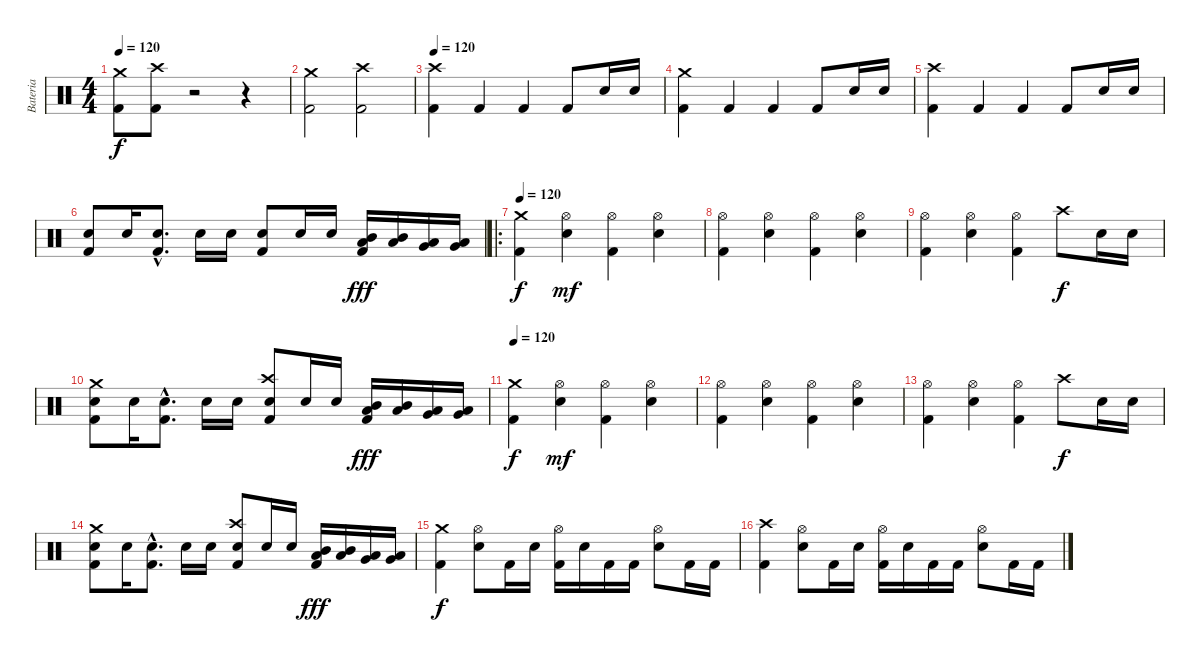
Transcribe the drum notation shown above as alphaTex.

\track ("Bateria" "Bateria") {instrument percussion}
\staff {score}
\articulation defaults
\ts (4 4)
\tempo 120
\clef neutral
\ks c
("Crash medium (hit)" "Kick (hit) 2").8{dy f} ("Crash high (hit)" "Kick (hit) 2").8 r.2 r.4 |
("Crash medium (hit)" "Kick (hit) 2").2 ("Crash high (hit)" "Kick (hit) 2").2 |
\tempo 120
("Crash high (hit)" "Kick (hit) 2").4 "Kick (hit) 2".4 "Kick (hit) 2".4 "Kick (hit) 2".8 "Snare (hit) 2".16 "Snare (hit) 2".16 |
("Crash medium (hit)" "Kick (hit) 2").4 "Kick (hit) 2".4 "Kick (hit) 2".4 "Kick (hit) 2".8 "Snare (hit) 2".16 "Snare (hit) 2".16 |
("Crash high (hit)" "Kick (hit) 2").4 "Kick (hit) 2".4 "Kick (hit) 2".4 "Kick (hit) 2".8 "Snare (hit) 2".16 "Snare (hit) 2".16 |
("Snare (hit) 2" "Kick (hit) 2").8 "Snare (hit) 2".16 ("Snare (hit) 2"{hac} "Kick (hit) 2"{hac}).8{d} "Snare (hit) 2".16 "Snare (hit) 2".16 ("Snare (hit) 2" "Kick (hit) 2").8 "Snare (hit) 2".16 "Snare (hit) 2".16 ("Low Tom (hit)" "Mid Tom (hit)" "Kick (hit) 2").16{dy fff} ("Low Tom (hit)" "Mid Tom (hit)").16 ("Very Low Tom (hit)" "Low Tom (hit)").16 ("Very Low Tom (hit)" "Low Tom (hit)").16 |
\ro
\tempo 120
("Crash medium (hit)" "Kick (hit) 2").4{dy f} ("Hi-Hat (open)" "Snare (hit) 2").4{dy mf} ("Hi-Hat (open)" "Kick (hit) 2").4 ("Hi-Hat (open)" "Snare (hit) 2").4 |
("Hi-Hat (open)" "Kick (hit) 2").4 ("Hi-Hat (open)" "Snare (hit) 2").4 ("Hi-Hat (open)" "Kick (hit) 2").4 ("Hi-Hat (open)" "Snare (hit) 2").4 |
("Hi-Hat (open)" "Kick (hit) 2").4 ("Hi-Hat (open)" "Snare (hit) 2").4 ("Hi-Hat (open)" "Kick (hit) 2").4 "Crash high (hit)".8{dy f} "Snare (hit) 2".16 "Snare (hit) 2".16 |
("Crash medium (hit)" "Snare (hit) 2" "Kick (hit) 2").8 "Snare (hit) 2".16 ("Snare (hit) 2"{hac} "Kick (hit) 2"{hac}).8{d} "Snare (hit) 2".16 "Snare (hit) 2".16 ("Crash high (hit)" "Snare (hit) 2" "Kick (hit) 2").8 "Snare (hit) 2".16 "Snare (hit) 2".16 ("Mid Tom (hit)" "Low Tom (hit)" "Kick (hit) 2").16{dy fff} ("Mid Tom (hit)" "Low Tom (hit)").16 ("Low Tom (hit)" "Very Low Tom (hit)").16 ("Low Tom (hit)" "Very Low Tom (hit)").16 |
\tempo 120
("Crash medium (hit)" "Kick (hit) 2").4{dy f} ("Hi-Hat (open)" "Snare (hit) 2").4{dy mf} ("Hi-Hat (open)" "Kick (hit) 2").4 ("Hi-Hat (open)" "Snare (hit) 2").4 |
("Hi-Hat (open)" "Kick (hit) 2").4 ("Hi-Hat (open)" "Snare (hit) 2").4 ("Hi-Hat (open)" "Kick (hit) 2").4 ("Hi-Hat (open)" "Snare (hit) 2").4 |
("Hi-Hat (open)" "Kick (hit) 2").4 ("Hi-Hat (open)" "Snare (hit) 2").4 ("Hi-Hat (open)" "Kick (hit) 2").4 "Crash high (hit)".8{dy f} "Snare (hit) 2".16 "Snare (hit) 2".16 |
("Crash medium (hit)" "Snare (hit) 2" "Kick (hit) 2").8 "Snare (hit) 2".16 ("Snare (hit) 2"{hac} "Kick (hit) 2"{hac}).8{d} "Snare (hit) 2".16 "Snare (hit) 2".16 ("Crash high (hit)" "Snare (hit) 2" "Kick (hit) 2").8 "Snare (hit) 2".16 "Snare (hit) 2".16 ("Mid Tom (hit)" "Low Tom (hit)" "Kick (hit) 2").16{dy fff} ("Mid Tom (hit)" "Low Tom (hit)").16 ("Low Tom (hit)" "Very Low Tom (hit)").16 ("Low Tom (hit)" "Very Low Tom (hit)").16 |
("Crash medium (hit)" "Kick (hit) 2").4{dy f} ("Hi-Hat (open)" "Snare (hit) 2").8 "Kick (hit) 2".16 "Snare (hit) 2".16 ("Hi-Hat (open)" "Kick (hit) 2").16 "Snare (hit) 2".16 "Kick (hit) 2".16 "Kick (hit) 2".16 ("Hi-Hat (open)" "Snare (hit) 2").8 "Kick (hit) 2".16 "Kick (hit) 2".16 |
("Crash high (hit)" "Kick (hit) 2").4 ("Hi-Hat (open)" "Snare (hit) 2").8 "Kick (hit) 2".16 "Snare (hit) 2".16 ("Hi-Hat (open)" "Kick (hit) 2").16 "Snare (hit) 2".16 "Kick (hit) 2".16 "Kick (hit) 2".16 ("Hi-Hat (open)" "Snare (hit) 2").8 "Kick (hit) 2".16 "Kick (hit) 2".16
